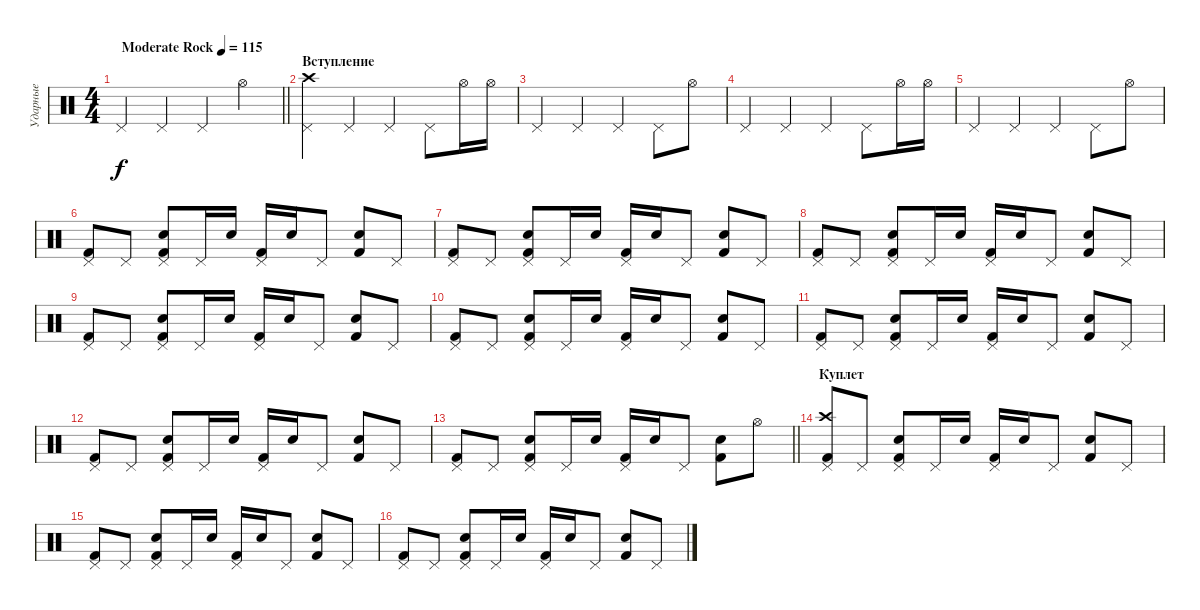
\track ("Ударные" "Ударные") {instrument percussion}
\staff {score}
\articulation defaults
\ts (4 4)
\tempo (115 "Moderate Rock")
\clef neutral
\barLineRight lightlight
\ks c "Pedal Hi-Hat (hit)".4{dy f} "Pedal Hi-Hat (hit)".4 "Pedal Hi-Hat (hit)".4 "Hi-Hat (open)".4
|
\section ("" "Вступление")
("Crash high (hit)" "Pedal Hi-Hat (hit)").4 "Pedal Hi-Hat (hit)".4 "Pedal Hi-Hat (hit)".4 "Pedal Hi-Hat (hit)".8 "Hi-Hat (open)".16 "Hi-Hat (open)".16 |
"Pedal Hi-Hat (hit)".4 "Pedal Hi-Hat (hit)".4 "Pedal Hi-Hat (hit)".4 "Pedal Hi-Hat (hit)".8 "Hi-Hat (open)".8 |
"Pedal Hi-Hat (hit)".4 "Pedal Hi-Hat (hit)".4 "Pedal Hi-Hat (hit)".4 "Pedal Hi-Hat (hit)".8 "Hi-Hat (open)".16 "Hi-Hat (open)".16 |
"Pedal Hi-Hat (hit)".4 "Pedal Hi-Hat (hit)".4 "Pedal Hi-Hat (hit)".4 "Pedal Hi-Hat (hit)".8 "Hi-Hat (open)".8 |
("Pedal Hi-Hat (hit)" "Kick (hit) 2").8 "Pedal Hi-Hat (hit)".8 ("Pedal Hi-Hat (hit)" "Electric Snare (hit)" "Kick (hit) 2").8 "Pedal Hi-Hat (hit)".16 "Electric Snare (hit)".16 ("Pedal Hi-Hat (hit)" "Kick (hit) 2").16 "Electric Snare (hit)".16 "Pedal Hi-Hat (hit)".8 ("Electric Snare (hit)" "Kick (hit) 2").8 "Pedal Hi-Hat (hit)".8 |
("Pedal Hi-Hat (hit)" "Kick (hit) 2").8 "Pedal Hi-Hat (hit)".8 ("Pedal Hi-Hat (hit)" "Electric Snare (hit)" "Kick (hit) 2").8 "Pedal Hi-Hat (hit)".16 "Electric Snare (hit)".16 ("Pedal Hi-Hat (hit)" "Kick (hit) 2").16 "Electric Snare (hit)".16 "Pedal Hi-Hat (hit)".8 ("Electric Snare (hit)" "Kick (hit) 2").8 "Pedal Hi-Hat (hit)".8 |
("Pedal Hi-Hat (hit)" "Kick (hit) 2").8 "Pedal Hi-Hat (hit)".8 ("Pedal Hi-Hat (hit)" "Electric Snare (hit)" "Kick (hit) 2").8 "Pedal Hi-Hat (hit)".16 "Electric Snare (hit)".16 ("Pedal Hi-Hat (hit)" "Kick (hit) 2").16 "Electric Snare (hit)".16 "Pedal Hi-Hat (hit)".8 ("Electric Snare (hit)" "Kick (hit) 2").8 "Pedal Hi-Hat (hit)".8 |
("Pedal Hi-Hat (hit)" "Kick (hit) 2").8 "Pedal Hi-Hat (hit)".8 ("Pedal Hi-Hat (hit)" "Electric Snare (hit)" "Kick (hit) 2").8 "Pedal Hi-Hat (hit)".16 "Electric Snare (hit)".16 ("Pedal Hi-Hat (hit)" "Kick (hit) 2").16 "Electric Snare (hit)".16 "Pedal Hi-Hat (hit)".8 ("Electric Snare (hit)" "Kick (hit) 2").8 "Pedal Hi-Hat (hit)".8 |
("Pedal Hi-Hat (hit)" "Kick (hit) 2").8 "Pedal Hi-Hat (hit)".8 ("Pedal Hi-Hat (hit)" "Electric Snare (hit)" "Kick (hit) 2").8 "Pedal Hi-Hat (hit)".16 "Electric Snare (hit)".16 ("Pedal Hi-Hat (hit)" "Kick (hit) 2").16 "Electric Snare (hit)".16 "Pedal Hi-Hat (hit)".8 ("Electric Snare (hit)" "Kick (hit) 2").8 "Pedal Hi-Hat (hit)".8 |
("Pedal Hi-Hat (hit)" "Kick (hit) 2").8 "Pedal Hi-Hat (hit)".8 ("Pedal Hi-Hat (hit)" "Electric Snare (hit)" "Kick (hit) 2").8 "Pedal Hi-Hat (hit)".16 "Electric Snare (hit)".16 ("Pedal Hi-Hat (hit)" "Kick (hit) 2").16 "Electric Snare (hit)".16 "Pedal Hi-Hat (hit)".8 ("Electric Snare (hit)" "Kick (hit) 2").8 "Pedal Hi-Hat (hit)".8 |
("Pedal Hi-Hat (hit)" "Kick (hit) 2").8 "Pedal Hi-Hat (hit)".8 ("Pedal Hi-Hat (hit)" "Electric Snare (hit)" "Kick (hit) 2").8 "Pedal Hi-Hat (hit)".16 "Electric Snare (hit)".16 ("Pedal Hi-Hat (hit)" "Kick (hit) 2").16 "Electric Snare (hit)".16 "Pedal Hi-Hat (hit)".8 ("Electric Snare (hit)" "Kick (hit) 2").8 "Pedal Hi-Hat (hit)".8 |
\barLineRight lightlight
("Pedal Hi-Hat (hit)" "Kick (hit) 2").8 "Pedal Hi-Hat (hit)".8 ("Pedal Hi-Hat (hit)" "Electric Snare (hit)" "Kick (hit) 2").8 "Pedal Hi-Hat (hit)".16 "Electric Snare (hit)".16 ("Pedal Hi-Hat (hit)" "Kick (hit) 2").16 "Electric Snare (hit)".16 "Pedal Hi-Hat (hit)".8 ("Electric Snare (hit)" "Kick (hit) 2").8 "Hi-Hat (open)".8 |
\section ("" "Куплет")
("Pedal Hi-Hat (hit)" "Crash high (hit)" "Kick (hit) 2").8 "Pedal Hi-Hat (hit)".8 ("Pedal Hi-Hat (hit)" "Electric Snare (hit)" "Kick (hit) 2").8 "Pedal Hi-Hat (hit)".16 "Electric Snare (hit)".16 ("Pedal Hi-Hat (hit)" "Kick (hit) 2").16 "Electric Snare (hit)".16 "Pedal Hi-Hat (hit)".8 ("Electric Snare (hit)" "Kick (hit) 2").8 "Pedal Hi-Hat (hit)".8 |
("Pedal Hi-Hat (hit)" "Kick (hit) 2").8 "Pedal Hi-Hat (hit)".8 ("Pedal Hi-Hat (hit)" "Electric Snare (hit)" "Kick (hit) 2").8 "Pedal Hi-Hat (hit)".16 "Electric Snare (hit)".16 ("Pedal Hi-Hat (hit)" "Kick (hit) 2").16 "Electric Snare (hit)".16 "Pedal Hi-Hat (hit)".8 ("Electric Snare (hit)" "Kick (hit) 2").8 "Pedal Hi-Hat (hit)".8 |
("Pedal Hi-Hat (hit)" "Kick (hit) 2").8 "Pedal Hi-Hat (hit)".8 ("Pedal Hi-Hat (hit)" "Electric Snare (hit)" "Kick (hit) 2").8 "Pedal Hi-Hat (hit)".16 "Electric Snare (hit)".16 ("Pedal Hi-Hat (hit)" "Kick (hit) 2").16 "Electric Snare (hit)".16 "Pedal Hi-Hat (hit)".8 ("Electric Snare (hit)" "Kick (hit) 2").8 "Pedal Hi-Hat (hit)".8
